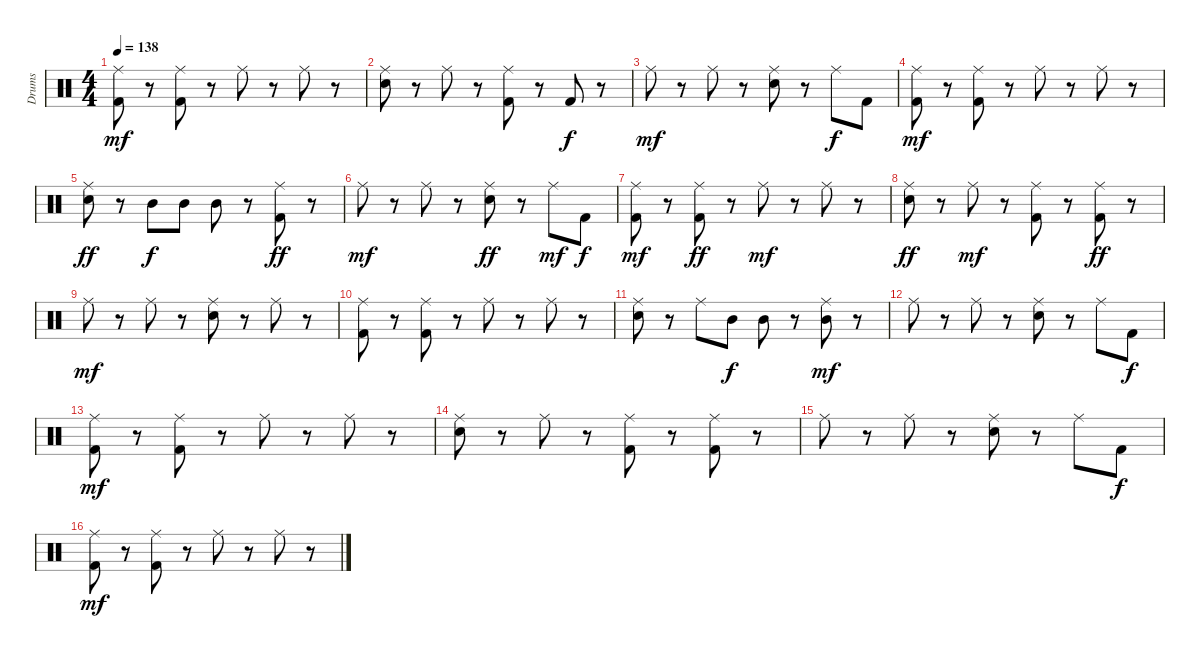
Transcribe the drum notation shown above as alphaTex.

\track ("Drums" "Drums") {instrument percussion}
\staff {score}
\articulation defaults
\ts (4 4)
\tempo 138
\clef neutral
\ks c
("Ride (middle)" "Kick (hit) 2").8{dy mf} r.8 ("Ride (middle)" "Kick (hit) 2").8 r.8 "Ride (middle)".8 r.8 "Ride (middle)".8 r.8 |
("Ride (middle)" "Snare (hit) 2").8 r.8 "Ride (middle)".8 r.8 ("Ride (middle)" "Kick (hit) 2").8 r.8 "Kick (hit) 2".8{dy f} r.8 |
"Ride (middle)".8{dy mf} r.8 "Ride (middle)".8 r.8 ("Ride (middle)" "Snare (hit) 2").8 r.8 "Ride (middle)".8{dy f} "Kick (hit) 2".8 |
("Ride (middle)" "Kick (hit) 2").8{dy mf} r.8 ("Ride (middle)" "Kick (hit) 2").8 r.8 "Ride (middle)".8 r.8 "Ride (middle)".8 r.8 |
("Ride (middle)" "Snare (hit) 2").8{dy ff} r.8 "Mid Tom (hit)".8{dy f} "Mid Tom (hit)".8 "Mid Tom (hit)".8 r.8 ("Ride (middle)" "Kick (hit) 2").8{dy ff} r.8 |
"Ride (middle)".8{dy mf} r.8 "Ride (middle)".8 r.8 ("Ride (middle)" "Snare (hit) 2").8{dy ff} r.8 "Ride (middle)".8{dy mf} "Kick (hit) 2".8{dy f} |
("Ride (middle)" "Kick (hit) 2").8{dy mf} r.8 ("Ride (middle)" "Kick (hit) 2").8{dy ff} r.8 "Ride (middle)".8{dy mf} r.8 "Ride (middle)".8 r.8 |
("Ride (middle)" "Snare (hit) 2").8{dy ff} r.8 "Ride (middle)".8{dy mf} r.8 ("Ride (middle)" "Kick (hit) 2").8 r.8 ("Ride (middle)" "Kick (hit) 2").8{dy ff} r.8 |
"Ride (middle)".8{dy mf} r.8 "Ride (middle)".8 r.8 ("Ride (middle)" "Snare (hit) 2").8 r.8 "Ride (middle)".8 r.8 |
("Ride (middle)" "Kick (hit) 2").8 r.8 ("Ride (middle)" "Kick (hit) 2").8 r.8 "Ride (middle)".8 r.8 "Ride (middle)".8 r.8 |
("Ride (middle)" "Snare (hit) 2").8 r.8 "Ride (middle)".8 "Mid Tom (hit)".8{dy f} "Mid Tom (hit)".8 r.8 ("Ride (middle)" "Mid Tom (hit)").8{dy mf} r.8 |
"Ride (middle)".8 r.8 "Ride (middle)".8 r.8 ("Ride (middle)" "Snare (hit) 2").8 r.8 "Ride (middle)".8 "Kick (hit) 2".8{dy f} |
("Ride (middle)" "Kick (hit) 2").8{dy mf} r.8 ("Ride (middle)" "Kick (hit) 2").8 r.8 "Ride (middle)".8 r.8 "Ride (middle)".8 r.8 |
("Ride (middle)" "Snare (hit) 2").8 r.8 "Ride (middle)".8 r.8 ("Ride (middle)" "Kick (hit) 2").8 r.8 ("Ride (middle)" "Kick (hit) 2").8 r.8 |
"Ride (middle)".8 r.8 "Ride (middle)".8 r.8 ("Ride (middle)" "Snare (hit) 2").8 r.8 "Ride (middle)".8 "Kick (hit) 2".8{dy f} |
("Ride (middle)" "Kick (hit) 2").8{dy mf} r.8 ("Ride (middle)" "Kick (hit) 2").8 r.8 "Ride (middle)".8 r.8 "Ride (middle)".8 r.8
